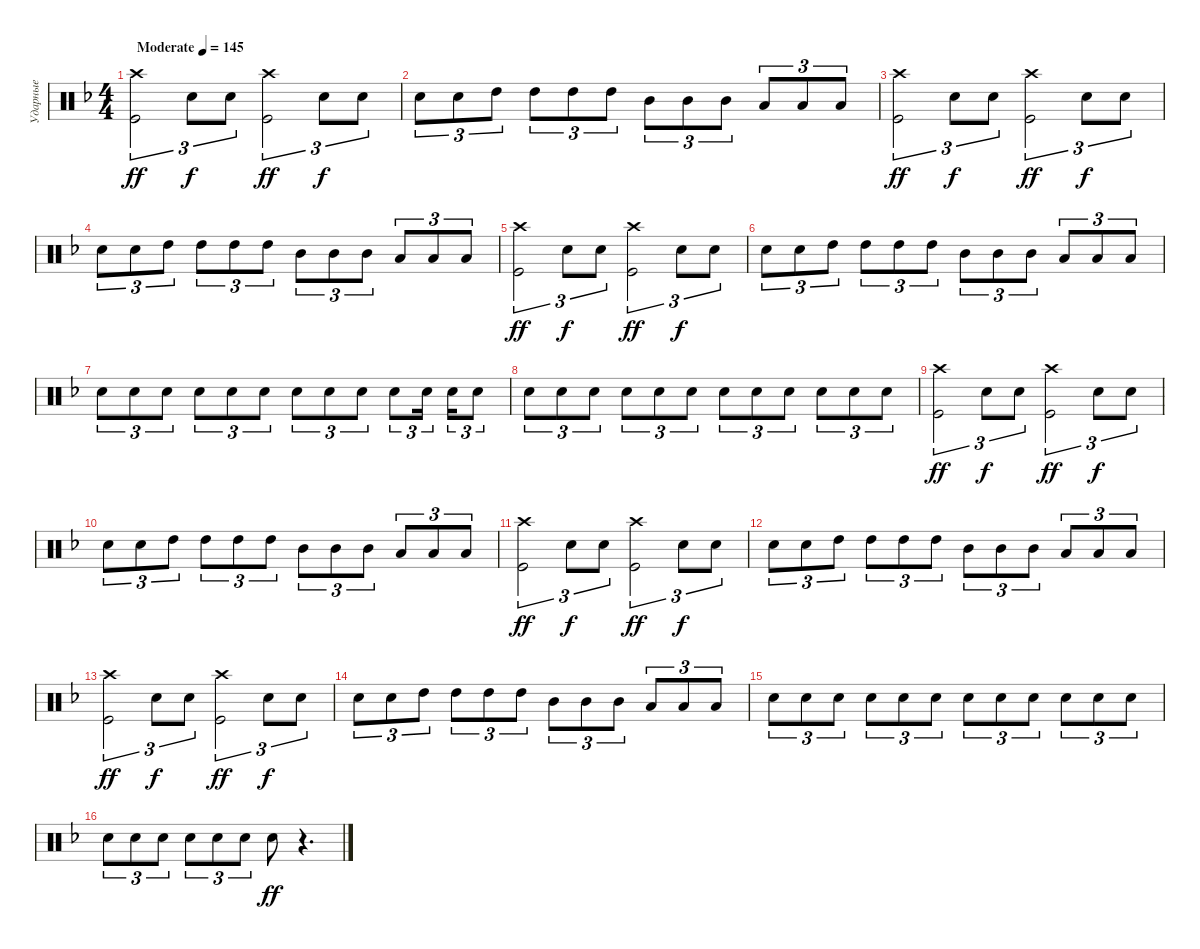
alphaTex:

\track ("Ударные" "Ударные") {instrument percussion}
\staff {score}
\articulation defaults
\ts (4 4)
\tempo (145 "Moderate")
\clef neutral
\ks dminor
("Crash high (hit)" "Kick (hit)").2{tu (3 2) dy ff} "Electric Snare (hit)".8{tu (3 2) dy f} "Electric Snare (hit)".8{tu (3 2)} ("Crash high (hit)" "Kick (hit)").2{tu (3 2) dy ff} "Electric Snare (hit)".8{tu (3 2) dy f} "Electric Snare (hit)".8{tu (3 2)} |
"Electric Snare (hit)".8{tu (3 2)} "Electric Snare (hit)".8{tu (3 2)} "High Tom (hit)".8{tu (3 2)} "High Tom (hit)".8{tu (3 2)} "High Tom (hit)".8{tu (3 2)} "High Tom (hit)".8{tu (3 2)} "Mid Tom (hit)".8{tu (3 2)} "Mid Tom (hit)".8{tu (3 2)} "Mid Tom (hit)".8{tu (3 2)} "Low Tom (hit)".8{tu (3 2)} "Low Tom (hit)".8{tu (3 2)} "Low Tom (hit)".8{tu (3 2)} |
("Crash high (hit)" "Kick (hit)").2{tu (3 2) dy ff} "Electric Snare (hit)".8{tu (3 2) dy f} "Electric Snare (hit)".8{tu (3 2)} ("Crash high (hit)" "Kick (hit)").2{tu (3 2) dy ff} "Electric Snare (hit)".8{tu (3 2) dy f} "Electric Snare (hit)".8{tu (3 2)} |
"Electric Snare (hit)".8{tu (3 2)} "Electric Snare (hit)".8{tu (3 2)} "High Tom (hit)".8{tu (3 2)} "High Tom (hit)".8{tu (3 2)} "High Tom (hit)".8{tu (3 2)} "High Tom (hit)".8{tu (3 2)} "Mid Tom (hit)".8{tu (3 2)} "Mid Tom (hit)".8{tu (3 2)} "Mid Tom (hit)".8{tu (3 2)} "Low Tom (hit)".8{tu (3 2)} "Low Tom (hit)".8{tu (3 2)} "Low Tom (hit)".8{tu (3 2)} |
("Crash high (hit)" "Kick (hit)").2{tu (3 2) dy ff} "Electric Snare (hit)".8{tu (3 2) dy f} "Electric Snare (hit)".8{tu (3 2)} ("Crash high (hit)" "Kick (hit)").2{tu (3 2) dy ff} "Electric Snare (hit)".8{tu (3 2) dy f} "Electric Snare (hit)".8{tu (3 2)} |
"Electric Snare (hit)".8{tu (3 2)} "Electric Snare (hit)".8{tu (3 2)} "High Tom (hit)".8{tu (3 2)} "High Tom (hit)".8{tu (3 2)} "High Tom (hit)".8{tu (3 2)} "High Tom (hit)".8{tu (3 2)} "Mid Tom (hit)".8{tu (3 2)} "Mid Tom (hit)".8{tu (3 2)} "Mid Tom (hit)".8{tu (3 2)} "Low Tom (hit)".8{tu (3 2)} "Low Tom (hit)".8{tu (3 2)} "Low Tom (hit)".8{tu (3 2)} |
"Electric Snare (hit)".8{tu (3 2)} "Electric Snare (hit)".8{tu (3 2)} "Electric Snare (hit)".8{tu (3 2)} "Electric Snare (hit)".8{tu (3 2)} "Electric Snare (hit)".8{tu (3 2)} "Electric Snare (hit)".8{tu (3 2)} "Electric Snare (hit)".8{tu (3 2)} "Electric Snare (hit)".8{tu (3 2)} "Electric Snare (hit)".8{tu (3 2)} "Electric Snare (hit)".8{tu (3 2)} "Electric Snare (hit)".16{tu (3 2) beam splitsecondary} "Electric Snare (hit)".16{tu (3 2)} "Electric Snare (hit)".8{tu (3 2)} |
"Electric Snare (hit)".8{tu (3 2)} "Electric Snare (hit)".8{tu (3 2)} "Electric Snare (hit)".8{tu (3 2)} "Electric Snare (hit)".8{tu (3 2)} "Electric Snare (hit)".8{tu (3 2)} "Electric Snare (hit)".8{tu (3 2)} "Electric Snare (hit)".8{tu (3 2)} "Electric Snare (hit)".8{tu (3 2)} "Electric Snare (hit)".8{tu (3 2)} "Electric Snare (hit)".8{tu (3 2)} "Electric Snare (hit)".8{tu (3 2)} "Electric Snare (hit)".8{tu (3 2)} |
("Crash high (hit)" "Kick (hit)").2{tu (3 2) dy ff} "Electric Snare (hit)".8{tu (3 2) dy f} "Electric Snare (hit)".8{tu (3 2)} ("Crash high (hit)" "Kick (hit)").2{tu (3 2) dy ff} "Electric Snare (hit)".8{tu (3 2) dy f} "Electric Snare (hit)".8{tu (3 2)} |
"Electric Snare (hit)".8{tu (3 2)} "Electric Snare (hit)".8{tu (3 2)} "High Tom (hit)".8{tu (3 2)} "High Tom (hit)".8{tu (3 2)} "High Tom (hit)".8{tu (3 2)} "High Tom (hit)".8{tu (3 2)} "Mid Tom (hit)".8{tu (3 2)} "Mid Tom (hit)".8{tu (3 2)} "Mid Tom (hit)".8{tu (3 2)} "Low Tom (hit)".8{tu (3 2)} "Low Tom (hit)".8{tu (3 2)} "Low Tom (hit)".8{tu (3 2)} |
("Crash high (hit)" "Kick (hit)").2{tu (3 2) dy ff} "Electric Snare (hit)".8{tu (3 2) dy f} "Electric Snare (hit)".8{tu (3 2)} ("Crash high (hit)" "Kick (hit)").2{tu (3 2) dy ff} "Electric Snare (hit)".8{tu (3 2) dy f} "Electric Snare (hit)".8{tu (3 2)} |
"Electric Snare (hit)".8{tu (3 2)} "Electric Snare (hit)".8{tu (3 2)} "High Tom (hit)".8{tu (3 2)} "High Tom (hit)".8{tu (3 2)} "High Tom (hit)".8{tu (3 2)} "High Tom (hit)".8{tu (3 2)} "Mid Tom (hit)".8{tu (3 2)} "Mid Tom (hit)".8{tu (3 2)} "Mid Tom (hit)".8{tu (3 2)} "Low Tom (hit)".8{tu (3 2)} "Low Tom (hit)".8{tu (3 2)} "Low Tom (hit)".8{tu (3 2)} |
("Crash high (hit)" "Kick (hit)").2{tu (3 2) dy ff} "Electric Snare (hit)".8{tu (3 2) dy f} "Electric Snare (hit)".8{tu (3 2)} ("Crash high (hit)" "Kick (hit)").2{tu (3 2) dy ff} "Electric Snare (hit)".8{tu (3 2) dy f} "Electric Snare (hit)".8{tu (3 2)} |
"Electric Snare (hit)".8{tu (3 2)} "Electric Snare (hit)".8{tu (3 2)} "High Tom (hit)".8{tu (3 2)} "High Tom (hit)".8{tu (3 2)} "High Tom (hit)".8{tu (3 2)} "High Tom (hit)".8{tu (3 2)} "Mid Tom (hit)".8{tu (3 2)} "Mid Tom (hit)".8{tu (3 2)} "Mid Tom (hit)".8{tu (3 2)} "Low Tom (hit)".8{tu (3 2)} "Low Tom (hit)".8{tu (3 2)} "Low Tom (hit)".8{tu (3 2)} |
"Electric Snare (hit)".8{tu (3 2)} "Electric Snare (hit)".8{tu (3 2)} "Electric Snare (hit)".8{tu (3 2)} "Electric Snare (hit)".8{tu (3 2)} "Electric Snare (hit)".8{tu (3 2)} "Electric Snare (hit)".8{tu (3 2)} "Electric Snare (hit)".8{tu (3 2)} "Electric Snare (hit)".8{tu (3 2)} "Electric Snare (hit)".8{tu (3 2)} "Electric Snare (hit)".8{tu (3 2)} "Electric Snare (hit)".8{tu (3 2)} "Electric Snare (hit)".8{tu (3 2)} |
"Electric Snare (hit)".8{tu (3 2)} "Electric Snare (hit)".8{tu (3 2)} "Electric Snare (hit)".8{tu (3 2)} "Electric Snare (hit)".8{tu (3 2)} "Electric Snare (hit)".8{tu (3 2)} "Electric Snare (hit)".8{tu (3 2)} "Electric Snare (hit)".8{dy ff} r.4{d}
